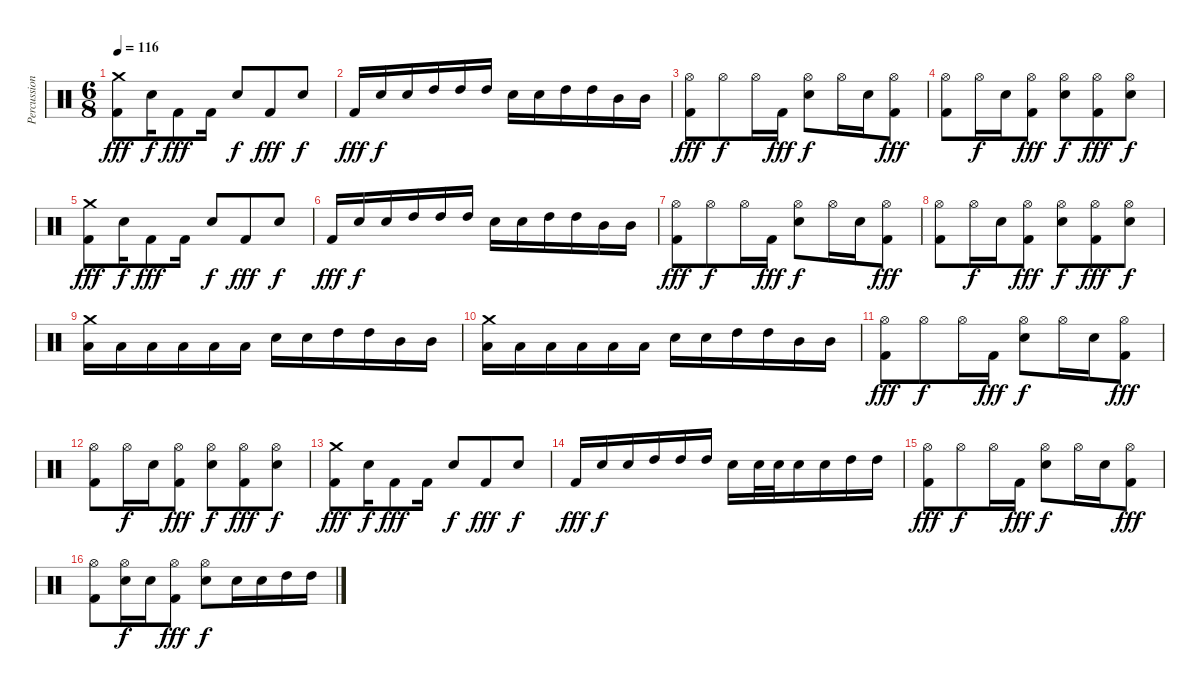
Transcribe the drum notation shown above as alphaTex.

\track ("Percussions" "Percussion") {instrument percussion}
\staff {score}
\articulation defaults
\ts (6 8)
\tempo 116
\clef neutral
\ks c
("Crash medium (hit)" "Kick (hit) 2").8{dy fff} "Snare (hit) 2".16{dy f} "Kick (hit) 2".8{dy fff} "Kick (hit) 2".16 "Snare (hit) 2".8{dy f} "Kick (hit) 2".8{dy fff} "Snare (hit) 2".8{dy f} |
"Kick (hit) 2".16{dy fff} "Snare (hit) 2".16{dy f} "Snare (hit) 2".16 "High Tom (hit)".16 "High Tom (hit)".16 "High Tom (hit)".16 "Snare (hit) 2".16 "Snare (hit) 2".16 "High Tom (hit)".16 "High Tom (hit)".16 "Mid Tom (hit)".16 "Mid Tom (hit)".16 |
("Hi-Hat (open)" "Kick (hit) 2").8{dy fff} "Hi-Hat (open)".8{dy f} "Hi-Hat (open)".16 "Kick (hit) 2".16{dy fff} ("Hi-Hat (open)" "Snare (hit) 2").8{dy f} "Hi-Hat (open)".16 "Snare (hit) 2".16 ("Hi-Hat (open)" "Kick (hit) 2").8{dy fff} |
("Hi-Hat (open)" "Kick (hit) 2").8 "Hi-Hat (open)".16{dy f} "Snare (hit) 2".16 ("Hi-Hat (open)" "Kick (hit) 2").8{dy fff} ("Hi-Hat (open)" "Snare (hit) 2").8{dy f} ("Hi-Hat (open)" "Kick (hit) 2").8{dy fff} ("Hi-Hat (open)" "Snare (hit) 2").8{dy f} |
("Crash medium (hit)" "Kick (hit) 2").8{dy fff} "Snare (hit) 2".16{dy f} "Kick (hit) 2".8{dy fff} "Kick (hit) 2".16 "Snare (hit) 2".8{dy f} "Kick (hit) 2".8{dy fff} "Snare (hit) 2".8{dy f} |
"Kick (hit) 2".16{dy fff} "Snare (hit) 2".16{dy f} "Snare (hit) 2".16 "High Tom (hit)".16 "High Tom (hit)".16 "High Tom (hit)".16 "Snare (hit) 2".16 "Snare (hit) 2".16 "High Tom (hit)".16 "High Tom (hit)".16 "Mid Tom (hit)".16 "Mid Tom (hit)".16 |
("Hi-Hat (open)" "Kick (hit) 2").8{dy fff} "Hi-Hat (open)".8{dy f} "Hi-Hat (open)".16 "Kick (hit) 2".16{dy fff} ("Hi-Hat (open)" "Snare (hit) 2").8{dy f} "Hi-Hat (open)".16 "Snare (hit) 2".16 ("Hi-Hat (open)" "Kick (hit) 2").8{dy fff} |
("Hi-Hat (open)" "Kick (hit) 2").8 "Hi-Hat (open)".16{dy f} "Snare (hit) 2".16 ("Hi-Hat (open)" "Kick (hit) 2").8{dy fff} ("Hi-Hat (open)" "Snare (hit) 2").8{dy f} ("Hi-Hat (open)" "Kick (hit) 2").8{dy fff} ("Hi-Hat (open)" "Snare (hit) 2").8{dy f} |
("Crash medium (hit)" "Low Tom (hit)").16 "Low Tom (hit)".16 "Low Tom (hit)".16 "Low Tom (hit)".16 "Low Tom (hit)".16 "Low Tom (hit)".16 "Snare (hit) 2".16 "Snare (hit) 2".16 "High Tom (hit)".16 "High Tom (hit)".16 "Mid Tom (hit)".16 "Mid Tom (hit)".16 |
("Crash medium (hit)" "Low Tom (hit)").16 "Low Tom (hit)".16 "Low Tom (hit)".16 "Low Tom (hit)".16 "Low Tom (hit)".16 "Low Tom (hit)".16 "Snare (hit) 2".16 "Snare (hit) 2".16 "High Tom (hit)".16 "High Tom (hit)".16 "Mid Tom (hit)".16 "Mid Tom (hit)".16 |
("Hi-Hat (open)" "Kick (hit) 2").8{dy fff} "Hi-Hat (open)".8{dy f} "Hi-Hat (open)".16 "Kick (hit) 2".16{dy fff} ("Hi-Hat (open)" "Snare (hit) 2").8{dy f} "Hi-Hat (open)".16 "Snare (hit) 2".16 ("Hi-Hat (open)" "Kick (hit) 2").8{dy fff} |
("Hi-Hat (open)" "Kick (hit) 2").8 "Hi-Hat (open)".16{dy f} "Snare (hit) 2".16 ("Hi-Hat (open)" "Kick (hit) 2").8{dy fff} ("Hi-Hat (open)" "Snare (hit) 2").8{dy f} ("Hi-Hat (open)" "Kick (hit) 2").8{dy fff} ("Hi-Hat (open)" "Snare (hit) 2").8{dy f} |
("Crash medium (hit)" "Kick (hit) 2").8{dy fff} "Snare (hit) 2".16{dy f} "Kick (hit) 2".8{dy fff} "Kick (hit) 2".16 "Snare (hit) 2".8{dy f} "Kick (hit) 2".8{dy fff} "Snare (hit) 2".8{dy f} |
"Kick (hit) 2".16{dy fff} "Snare (hit) 2".16{dy f} "Snare (hit) 2".16 "High Tom (hit)".16 "High Tom (hit)".16 "High Tom (hit)".16 "Snare (hit) 2".16 "Snare (hit) 2".32 "Snare (hit) 2".32 "Snare (hit) 2".16 "Snare (hit) 2".16 "High Tom (hit)".16 "High Tom (hit)".16 |
("Hi-Hat (open)" "Kick (hit) 2").8{dy fff} "Hi-Hat (open)".8{dy f} "Hi-Hat (open)".16 "Kick (hit) 2".16{dy fff} ("Hi-Hat (open)" "Snare (hit) 2").8{dy f} "Hi-Hat (open)".16 "Snare (hit) 2".16 ("Hi-Hat (open)" "Kick (hit) 2").8{dy fff} |
("Hi-Hat (open)" "Kick (hit) 2").8 ("Hi-Hat (open)" "Snare (hit) 2").16{dy f} "Snare (hit) 2".16 ("Hi-Hat (open)" "Kick (hit) 2").8{dy fff} ("Hi-Hat (open)" "Snare (hit) 2").8{dy f} "Snare (hit) 2".16 "Snare (hit) 2".16 "High Tom (hit)".16 "High Tom (hit)".16
